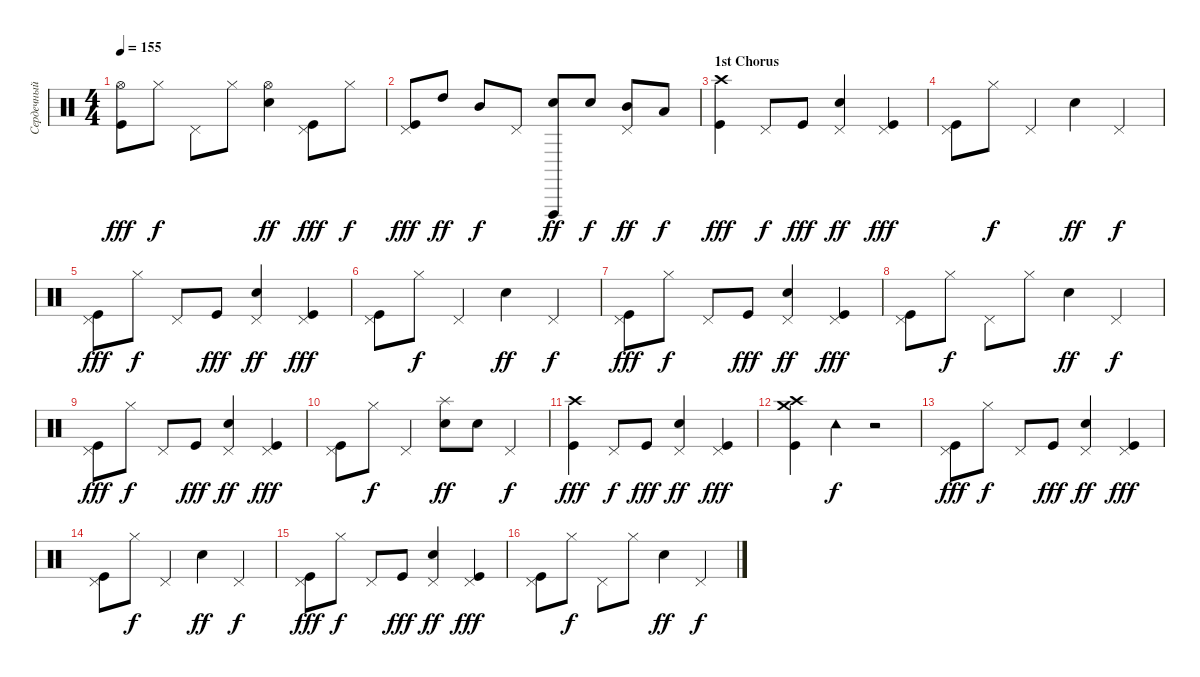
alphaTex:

\track ("Сердечный (Ударные)" "Сердечный ") {instrument percussion}
\staff {score}
\articulation defaults
\ts (4 4)
\tempo 155
\clef neutral
\ks c
("Hi-Hat (open)" "Kick (hit)").8{dy fff} "Hi-Hat (closed)".8{dy f} "Pedal Hi-Hat (hit)".8 "Hi-Hat (closed)".8 ("Hi-Hat (open)" "Electric Snare (hit)").4{dy ff} ("Kick (hit)" "Pedal Hi-Hat (hit)").8{dy fff} "Hi-Hat (closed)".8{dy f} |
("Kick (hit)" "Pedal Hi-Hat (hit)").8{dy fff} "High Tom (hit)".8{dy ff} "Mid Tom (hit)".8{dy f} "Pedal Hi-Hat (hit)".8 ("Vibraslap (hit)" "Electric Snare (hit)").8{dy ff} "Electric Snare (hit)".8{dy f} ("Mid Tom (hit)" "Pedal Hi-Hat (hit)").8{dy ff} "Low Tom (hit)".8{dy f} |
\section ("" "1st Chorus")
("Crash high (hit)" "Kick (hit)").4{dy fff} "Pedal Hi-Hat (hit)".8{dy f} "Kick (hit)".8{dy fff} ("Electric Snare (hit)" "Pedal Hi-Hat (hit)").4{dy ff} ("Kick (hit)" "Pedal Hi-Hat (hit)").4{dy fff} |
("Kick (hit)" "Pedal Hi-Hat (hit)").8 "Hi-Hat (closed)".8{dy f} "Pedal Hi-Hat (hit)".4 "Electric Snare (hit)".4{dy ff} "Pedal Hi-Hat (hit)".4{dy f} |
("Kick (hit)" "Pedal Hi-Hat (hit)").8{dy fff} "Hi-Hat (closed)".8{dy f} "Pedal Hi-Hat (hit)".8 "Kick (hit)".8{dy fff} ("Electric Snare (hit)" "Pedal Hi-Hat (hit)").4{dy ff} ("Kick (hit)" "Pedal Hi-Hat (hit)").4{dy fff} |
("Kick (hit)" "Pedal Hi-Hat (hit)").8 "Hi-Hat (closed)".8{dy f} "Pedal Hi-Hat (hit)".4 "Electric Snare (hit)".4{dy ff} "Pedal Hi-Hat (hit)".4{dy f} |
("Kick (hit)" "Pedal Hi-Hat (hit)").8{dy fff} "Hi-Hat (closed)".8{dy f} "Pedal Hi-Hat (hit)".8 "Kick (hit)".8{dy fff} ("Electric Snare (hit)" "Pedal Hi-Hat (hit)").4{dy ff} ("Kick (hit)" "Pedal Hi-Hat (hit)").4{dy fff} |
("Kick (hit)" "Pedal Hi-Hat (hit)").8 "Hi-Hat (closed)".8{dy f} "Pedal Hi-Hat (hit)".8 "Hi-Hat (closed)".8 "Electric Snare (hit)".4{dy ff} "Pedal Hi-Hat (hit)".4{dy f} |
("Kick (hit)" "Pedal Hi-Hat (hit)").8{dy fff} "Hi-Hat (closed)".8{dy f} "Pedal Hi-Hat (hit)".8 "Kick (hit)".8{dy fff} ("Electric Snare (hit)" "Pedal Hi-Hat (hit)").4{dy ff} ("Kick (hit)" "Pedal Hi-Hat (hit)").4{dy fff} |
("Kick (hit)" "Pedal Hi-Hat (hit)").8 "Hi-Hat (closed)".8{dy f} "Pedal Hi-Hat (hit)".4 ("Splash (hit)" "Electric Snare (hit)").8{dy ff} "Electric Snare (hit)".8 "Pedal Hi-Hat (hit)".4{dy f} |
("Crash high (hit)" "Kick (hit)").4{dy fff} "Pedal Hi-Hat (hit)".8{dy f} "Kick (hit)".8{dy fff} ("Electric Snare (hit)" "Pedal Hi-Hat (hit)").4{dy ff} ("Kick (hit)" "Pedal Hi-Hat (hit)").4{dy fff} |
("Crash medium (hit)" "Crash high (hit)" "Kick (hit)").4 "Tambourine (hit)".4{dy f} r.2 |
("Kick (hit)" "Pedal Hi-Hat (hit)").8{dy fff} "Hi-Hat (closed)".8{dy f} "Pedal Hi-Hat (hit)".8 "Kick (hit)".8{dy fff} ("Electric Snare (hit)" "Pedal Hi-Hat (hit)").4{dy ff} ("Kick (hit)" "Pedal Hi-Hat (hit)").4{dy fff} |
("Kick (hit)" "Pedal Hi-Hat (hit)").8 "Hi-Hat (closed)".8{dy f} "Pedal Hi-Hat (hit)".4 "Electric Snare (hit)".4{dy ff} "Pedal Hi-Hat (hit)".4{dy f} |
("Kick (hit)" "Pedal Hi-Hat (hit)").8{dy fff} "Hi-Hat (closed)".8{dy f} "Pedal Hi-Hat (hit)".8 "Kick (hit)".8{dy fff} ("Electric Snare (hit)" "Pedal Hi-Hat (hit)").4{dy ff} ("Kick (hit)" "Pedal Hi-Hat (hit)").4{dy fff} |
("Kick (hit)" "Pedal Hi-Hat (hit)").8 "Hi-Hat (closed)".8{dy f} "Pedal Hi-Hat (hit)".8 "Hi-Hat (closed)".8 "Electric Snare (hit)".4{dy ff} "Pedal Hi-Hat (hit)".4{dy f}
